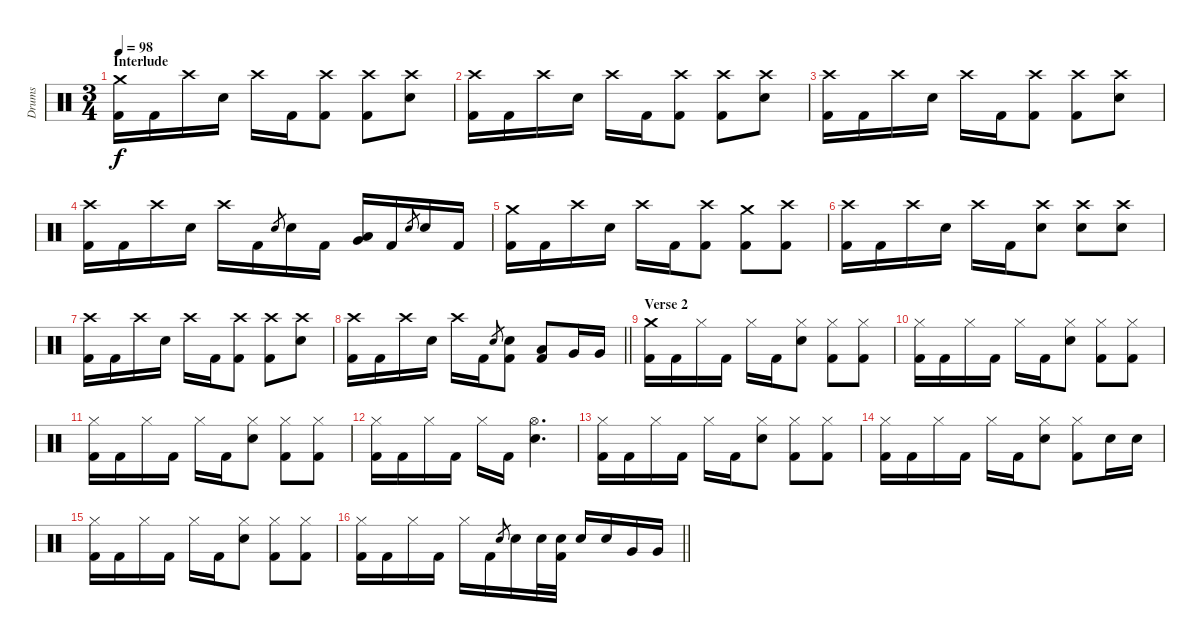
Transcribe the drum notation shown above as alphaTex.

\track ("Drums" "Drums") {instrument percussion}
\staff {score}
\articulation defaults
\ts (3 4)
\section ("" "Interlude")
\tempo 98
\clef neutral
\ks c
("Crash medium (hit)" "Kick (hit) 2").16{dy f} "Kick (hit) 2".16 "Crash high (hit)".16 "Electric Snare (hit)".16 "Crash high (hit)".16 "Kick (hit) 2".16 ("Crash high (hit)" "Kick (hit) 2").8 ("Crash high (hit)" "Kick (hit) 2").8 ("Crash high (hit)" "Electric Snare (hit)").8 |
("Crash high (hit)" "Kick (hit) 2").16 "Kick (hit) 2".16 "Crash high (hit)".16 "Electric Snare (hit)".16 "Crash high (hit)".16 "Kick (hit) 2".16 ("Crash high (hit)" "Kick (hit) 2").8 ("Crash high (hit)" "Kick (hit) 2").8 ("Crash high (hit)" "Electric Snare (hit)").8 |
("Crash high (hit)" "Kick (hit) 2").16 "Kick (hit) 2".16 "Crash high (hit)".16 "Electric Snare (hit)".16 "Crash high (hit)".16 "Kick (hit) 2".16 ("Crash high (hit)" "Kick (hit) 2").8 ("Crash high (hit)" "Kick (hit) 2").8 ("Crash high (hit)" "Electric Snare (hit)").8 |
("Crash high (hit)" "Kick (hit) 2").16 "Kick (hit) 2".16 "Crash high (hit)".16 "Electric Snare (hit)".16 "Crash high (hit)".16 "Kick (hit) 2".16 "Electric Snare (hit)".8{gr} "Electric Snare (hit)".16 "Kick (hit) 2".16 ("Very Low Tom (hit)" "Low Tom (hit)").16 "Kick (hit) 2".16 "Electric Snare (hit)".8{gr} "Electric Snare (hit)".16 "Kick (hit) 2".16 |
("Crash medium (hit)" "Kick (hit) 2").16 "Kick (hit) 2".16 "Crash high (hit)".16 "Electric Snare (hit)".16 "Crash high (hit)".16 "Kick (hit) 2".16 ("Crash high (hit)" "Kick (hit) 2").8 ("Crash medium (hit)" "Kick (hit) 2").8 ("Crash high (hit)" "Kick (hit) 2").8 |
("Crash high (hit)" "Kick (hit) 2").16 "Kick (hit) 2".16 "Crash high (hit)".16 "Electric Snare (hit)".16 "Crash high (hit)".16 "Kick (hit) 2".16 ("Crash high (hit)" "Electric Snare (hit)").8 ("Crash high (hit)" "Electric Snare (hit)").8 ("Crash high (hit)" "Electric Snare (hit)").8 |
("Crash high (hit)" "Kick (hit) 2").16 "Kick (hit) 2".16 "Crash high (hit)".16 "Electric Snare (hit)".16 "Crash high (hit)".16 "Kick (hit) 2".16 ("Crash high (hit)" "Kick (hit) 2").8 ("Crash high (hit)" "Kick (hit) 2").8 ("Crash high (hit)" "Electric Snare (hit)").8 |
\barLineRight lightlight
("Crash high (hit)" "Kick (hit) 2").16 "Kick (hit) 2".16 "Crash high (hit)".16 "Electric Snare (hit)".16 "Crash high (hit)".16 "Kick (hit) 2".16 "Electric Snare (hit)".8{gr} ("Electric Snare (hit)" "Kick (hit) 2").8 ("Low Tom (hit)" "Kick (hit) 2").8 "Very Low Tom (hit)".16 "Very Low Tom (hit)".16 |
\section ("" "Verse 2")
("Crash medium (hit)" "Kick (hit) 2").16 "Kick (hit) 2".16 "Hi-Hat (closed)".16 "Kick (hit) 2".16 "Hi-Hat (closed)".16 "Kick (hit) 2".16 ("Hi-Hat (closed)" "Electric Snare (hit)").8 ("Hi-Hat (closed)" "Kick (hit) 2").8 ("Hi-Hat (closed)" "Kick (hit) 2").8 |
("Hi-Hat (closed)" "Kick (hit) 2").16 "Kick (hit) 2".16 "Hi-Hat (closed)".16 "Kick (hit) 2".16 "Hi-Hat (closed)".16 "Kick (hit) 2".16 ("Hi-Hat (closed)" "Electric Snare (hit)").8 ("Hi-Hat (closed)" "Kick (hit) 2").8 ("Hi-Hat (closed)" "Kick (hit) 2").8 |
("Hi-Hat (closed)" "Kick (hit) 2").16 "Kick (hit) 2".16 "Hi-Hat (closed)".16 "Kick (hit) 2".16 "Hi-Hat (closed)".16 "Kick (hit) 2".16 ("Hi-Hat (closed)" "Electric Snare (hit)").8 ("Hi-Hat (closed)" "Kick (hit) 2").8 ("Hi-Hat (closed)" "Kick (hit) 2").8 |
("Hi-Hat (closed)" "Kick (hit) 2").16 "Kick (hit) 2".16 "Hi-Hat (closed)".16 "Kick (hit) 2".16 "Hi-Hat (closed)".16 "Kick (hit) 2".16 ("Hi-Hat (open)" "Electric Snare (hit)").4{d} |
("Hi-Hat (closed)" "Kick (hit) 2").16 "Kick (hit) 2".16 "Hi-Hat (closed)".16 "Kick (hit) 2".16 "Hi-Hat (closed)".16 "Kick (hit) 2".16 ("Hi-Hat (closed)" "Electric Snare (hit)").8 ("Hi-Hat (closed)" "Kick (hit) 2").8 ("Hi-Hat (closed)" "Kick (hit) 2").8 |
("Hi-Hat (closed)" "Kick (hit) 2").16 "Kick (hit) 2".16 "Hi-Hat (closed)".16 "Kick (hit) 2".16 "Hi-Hat (closed)".16 "Kick (hit) 2".16 ("Hi-Hat (closed)" "Electric Snare (hit)").8 ("Hi-Hat (closed)" "Kick (hit) 2").8 "Electric Snare (hit)".16 "Electric Snare (hit)".16 |
("Hi-Hat (closed)" "Kick (hit) 2").16 "Kick (hit) 2".16 "Hi-Hat (closed)".16 "Kick (hit) 2".16 "Hi-Hat (closed)".16 "Kick (hit) 2".16 ("Hi-Hat (closed)" "Electric Snare (hit)").8 ("Hi-Hat (closed)" "Kick (hit) 2").8 ("Hi-Hat (closed)" "Kick (hit) 2").8 |
\barLineRight lightlight
("Hi-Hat (closed)" "Kick (hit) 2").16 "Kick (hit) 2".16 "Hi-Hat (closed)".16 "Kick (hit) 2".16 "Hi-Hat (closed)".16 "Kick (hit) 2".16 "Electric Snare (hit)".8{gr} "Electric Snare (hit)".16 "Electric Snare (hit)".32 ("Electric Snare (hit)" "Kick (hit) 2").32 "Electric Snare (hit)".16 "Electric Snare (hit)".16 "Very Low Tom (hit)".16 "Very Low Tom (hit)".16
